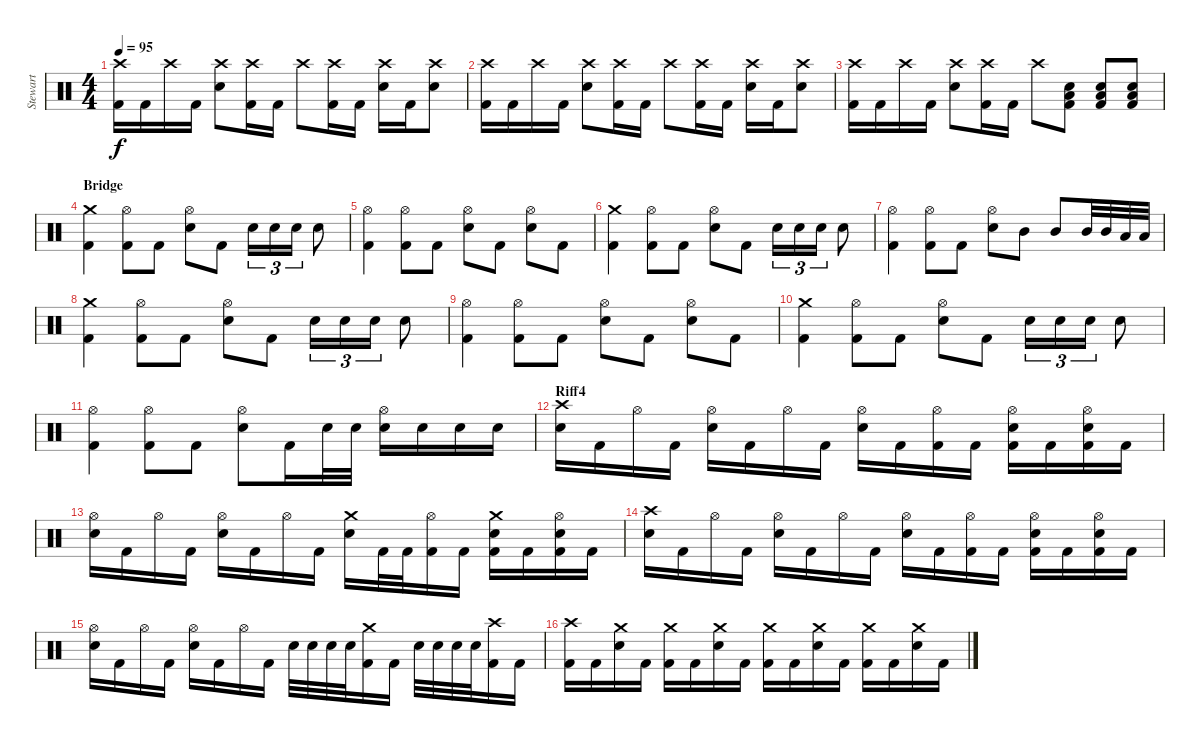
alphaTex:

\track ("Stewart" "Stewart") {instrument percussion}
\staff {score}
\articulation defaults
\ts (4 4)
\tempo 95
\clef neutral
\ks c
("Crash high (hit)" "Kick (hit) 2").16{dy f} "Kick (hit) 2".16 "Crash high (hit)".16 "Kick (hit) 2".16 ("Crash high (hit)" "Snare (hit) 2").8 ("Crash high (hit)" "Kick (hit) 2").16 "Kick (hit) 2".16 "Crash high (hit)".8 ("Crash high (hit)" "Kick (hit) 2").16 "Kick (hit) 2".16 ("Crash high (hit)" "Snare (hit) 2").16 "Kick (hit) 2".16 ("Crash high (hit)" "Snare (hit) 2").8 |
("Crash high (hit)" "Kick (hit) 2").16 "Kick (hit) 2".16 "Crash high (hit)".16 "Kick (hit) 2".16 ("Crash high (hit)" "Snare (hit) 2").8 ("Crash high (hit)" "Kick (hit) 2").16 "Kick (hit) 2".16 "Crash high (hit)".8 ("Crash high (hit)" "Kick (hit) 2").16 "Kick (hit) 2".16 ("Crash high (hit)" "Snare (hit) 2").16 "Kick (hit) 2".16 ("Crash high (hit)" "Snare (hit) 2").8 |
("Crash high (hit)" "Kick (hit) 2").16 "Kick (hit) 2".16 "Crash high (hit)".16 "Kick (hit) 2".16 ("Crash high (hit)" "Snare (hit) 2").8 ("Crash high (hit)" "Kick (hit) 2").16 "Kick (hit) 2".16 "Crash high (hit)".8 ("Snare (hit) 2" "Low Floor Tom (hit)" "Kick (hit) 2").8 ("Low Floor Tom (hit)" "Kick (hit) 2" "Snare (hit) 2").8 ("Low Floor Tom (hit)" "Kick (hit) 2" "Snare (hit) 2").8 |
\section ("" "Bridge")
("Crash medium (hit)" "Kick (hit) 2").4 ("Hi-Hat (open)" "Kick (hit) 2").8 "Kick (hit) 2".8 ("Hi-Hat (open)" "Snare (hit) 2").8 "Kick (hit) 2".8 "Snare (hit) 2".16{tu (3 2)} "Snare (hit) 2".16{tu (3 2)} "Snare (hit) 2".16{tu (3 2)} "Snare (hit) 2".8 |
("Hi-Hat (open)" "Kick (hit) 2").4 ("Hi-Hat (open)" "Kick (hit) 2").8 "Kick (hit) 2".8 ("Hi-Hat (open)" "Snare (hit) 2").8 "Kick (hit) 2".8 ("Hi-Hat (open)" "Snare (hit) 2").8 "Kick (hit) 2".8 |
("Crash medium (hit)" "Kick (hit) 2").4 ("Hi-Hat (open)" "Kick (hit) 2").8 "Kick (hit) 2".8 ("Hi-Hat (open)" "Snare (hit) 2").8 "Kick (hit) 2".8 "Snare (hit) 2".16{tu (3 2)} "Snare (hit) 2".16{tu (3 2)} "Snare (hit) 2".16{tu (3 2)} "Snare (hit) 2".8 |
("Hi-Hat (open)" "Kick (hit) 2").4 ("Hi-Hat (open)" "Kick (hit) 2").8 "Kick (hit) 2".8 ("Hi-Hat (open)" "Snare (hit) 2").8 "Mid Tom (hit)".8 "Mid Tom (hit)".8 "Mid Tom (hit)".32 "Mid Tom (hit)".32 "Low Tom (hit)".32 "Low Tom (hit)".32 |
("Crash medium (hit)" "Kick (hit) 2").4 ("Hi-Hat (open)" "Kick (hit) 2").8 "Kick (hit) 2".8 ("Hi-Hat (open)" "Snare (hit) 2").8 "Kick (hit) 2".8 "Snare (hit) 2".16{tu (3 2)} "Snare (hit) 2".16{tu (3 2)} "Snare (hit) 2".16{tu (3 2)} "Snare (hit) 2".8 |
("Hi-Hat (open)" "Kick (hit) 2").4 ("Hi-Hat (open)" "Kick (hit) 2").8 "Kick (hit) 2".8 ("Hi-Hat (open)" "Snare (hit) 2").8 "Kick (hit) 2".8 ("Hi-Hat (open)" "Snare (hit) 2").8 "Kick (hit) 2".8 |
("Crash medium (hit)" "Kick (hit) 2").4 ("Hi-Hat (open)" "Kick (hit) 2").8 "Kick (hit) 2".8 ("Hi-Hat (open)" "Snare (hit) 2").8 "Kick (hit) 2".8 "Snare (hit) 2".16{tu (3 2)} "Snare (hit) 2".16{tu (3 2)} "Snare (hit) 2".16{tu (3 2)} "Snare (hit) 2".8 |
("Hi-Hat (open)" "Kick (hit) 2").4 ("Hi-Hat (open)" "Kick (hit) 2").8 "Kick (hit) 2".8 ("Hi-Hat (open)" "Snare (hit) 2").8 "Kick (hit) 2".16 "Snare (hit) 2".32 "Snare (hit) 2".32 ("Hi-Hat (open)" "Snare (hit) 2").16 "Snare (hit) 2".16 "Snare (hit) 2".16 "Snare (hit) 2".16 |
\section ("" "Riff4")
("Crash high (hit)" "Snare (hit) 2").16 "Kick (hit) 2".16 "Hi-Hat (open)".16 "Kick (hit) 2".16 ("Hi-Hat (open)" "Snare (hit) 2").16 "Kick (hit) 2".16 "Hi-Hat (open)".16 "Kick (hit) 2".16 ("Hi-Hat (open)" "Snare (hit) 2").16 "Kick (hit) 2".16 ("Hi-Hat (open)" "Kick (hit) 2").16 "Kick (hit) 2".16 ("Hi-Hat (open)" "Snare (hit) 2" "Kick (hit) 2").16 "Kick (hit) 2".16 ("Hi-Hat (open)" "Snare (hit) 2" "Kick (hit) 2").16 "Kick (hit) 2".16 |
("Hi-Hat (open)" "Snare (hit) 2").16 "Kick (hit) 2".16 "Hi-Hat (open)".16 "Kick (hit) 2".16 ("Hi-Hat (open)" "Snare (hit) 2").16 "Kick (hit) 2".16 "Hi-Hat (open)".16 "Kick (hit) 2".16 ("Crash medium (hit)" "Snare (hit) 2").16 "Kick (hit) 2".32 "Kick (hit) 2".32 ("Hi-Hat (open)" "Kick (hit) 2").16 "Kick (hit) 2".16 ("Crash medium (hit)" "Snare (hit) 2" "Kick (hit) 2").16 "Kick (hit) 2".16 ("Hi-Hat (open)" "Snare (hit) 2" "Kick (hit) 2").16 "Kick (hit) 2".16 |
("Crash high (hit)" "Snare (hit) 2").16 "Kick (hit) 2".16 "Hi-Hat (open)".16 "Kick (hit) 2".16 ("Hi-Hat (open)" "Snare (hit) 2").16 "Kick (hit) 2".16 "Hi-Hat (open)".16 "Kick (hit) 2".16 ("Hi-Hat (open)" "Snare (hit) 2").16 "Kick (hit) 2".16 ("Hi-Hat (open)" "Kick (hit) 2").16 "Kick (hit) 2".16 ("Hi-Hat (open)" "Snare (hit) 2" "Kick (hit) 2").16 "Kick (hit) 2".16 ("Hi-Hat (open)" "Snare (hit) 2" "Kick (hit) 2").16 "Kick (hit) 2".16 |
("Hi-Hat (open)" "Snare (hit) 2").16 "Kick (hit) 2".16 "Hi-Hat (open)".16 "Kick (hit) 2".16 ("Hi-Hat (open)" "Snare (hit) 2").16 "Kick (hit) 2".16 "Hi-Hat (open)".16 "Kick (hit) 2".16 "Snare (hit) 2".32 "Snare (hit) 2".32 "Snare (hit) 2".32 "Snare (hit) 2".32 ("Crash medium (hit)" "Kick (hit) 2").16 "Kick (hit) 2".16 "Snare (hit) 2".32 "Snare (hit) 2".32 "Snare (hit) 2".32 "Snare (hit) 2".32 ("Crash high (hit)" "Kick (hit) 2").16 "Kick (hit) 2".16 |
("Crash high (hit)" "Kick (hit) 2").16 "Kick (hit) 2".16 ("Crash medium (hit)" "Snare (hit) 2").16 "Kick (hit) 2".16 ("Crash medium (hit)" "Kick (hit) 2").16 "Kick (hit) 2".16 ("Crash medium (hit)" "Snare (hit) 2").16 "Kick (hit) 2".16 ("Crash medium (hit)" "Kick (hit) 2").16 "Kick (hit) 2".16 ("Crash medium (hit)" "Snare (hit) 2").16 "Kick (hit) 2".16 ("Crash medium (hit)" "Kick (hit) 2").16 "Kick (hit) 2".16 ("Crash medium (hit)" "Snare (hit) 2").16 "Kick (hit) 2".16
